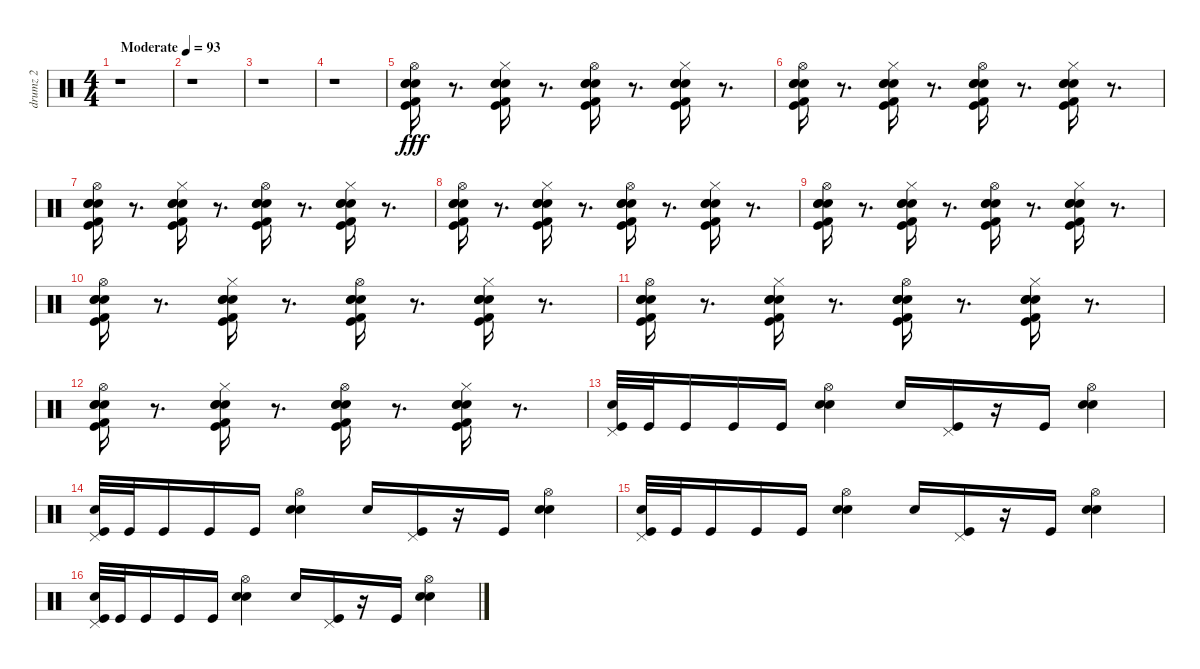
\track ("drumz 2" "drumz 2") {instrument percussion}
\staff {score}
\articulation defaults
\ts (4 4)
\tempo (93 "Moderate")
\clef neutral
\ks c
r.1{dy fff} |
r.1 |
r.1 |
r.1 |
("Kick (hit)" "Snare (hit) 2" "Hand Clap (hit)" "Electric Snare (hit)" "Kick (hit) 2" "Hi-Hat (open)").16 r.8{d} ("Kick (hit)" "Snare (hit) 2" "Hand Clap (hit)" "Electric Snare (hit)" "Kick (hit) 2" "Hi-Hat (closed)").16 r.8{d} ("Kick (hit)" "Snare (hit) 2" "Hand Clap (hit)" "Electric Snare (hit)" "Kick (hit) 2" "Hi-Hat (open)").16 r.8{d} ("Kick (hit)" "Snare (hit) 2" "Hand Clap (hit)" "Electric Snare (hit)" "Kick (hit) 2" "Hi-Hat (closed)").16 r.8{d} |
("Kick (hit)" "Snare (hit) 2" "Hand Clap (hit)" "Electric Snare (hit)" "Kick (hit) 2" "Hi-Hat (open)").16 r.8{d} ("Kick (hit)" "Snare (hit) 2" "Hand Clap (hit)" "Electric Snare (hit)" "Kick (hit) 2" "Hi-Hat (closed)").16 r.8{d} ("Kick (hit)" "Snare (hit) 2" "Hand Clap (hit)" "Electric Snare (hit)" "Kick (hit) 2" "Hi-Hat (open)").16 r.8{d} ("Kick (hit)" "Snare (hit) 2" "Hand Clap (hit)" "Electric Snare (hit)" "Kick (hit) 2" "Hi-Hat (closed)").16 r.8{d} |
("Kick (hit)" "Snare (hit) 2" "Hand Clap (hit)" "Electric Snare (hit)" "Kick (hit) 2" "Hi-Hat (open)").16 r.8{d} ("Kick (hit)" "Snare (hit) 2" "Hand Clap (hit)" "Electric Snare (hit)" "Kick (hit) 2" "Hi-Hat (closed)").16 r.8{d} ("Kick (hit)" "Snare (hit) 2" "Hand Clap (hit)" "Electric Snare (hit)" "Kick (hit) 2" "Hi-Hat (open)").16 r.8{d} ("Kick (hit)" "Snare (hit) 2" "Hand Clap (hit)" "Electric Snare (hit)" "Kick (hit) 2" "Hi-Hat (closed)").16 r.8{d} |
("Kick (hit)" "Snare (hit) 2" "Hand Clap (hit)" "Electric Snare (hit)" "Kick (hit) 2" "Hi-Hat (open)").16 r.8{d} ("Kick (hit)" "Snare (hit) 2" "Hand Clap (hit)" "Electric Snare (hit)" "Kick (hit) 2" "Hi-Hat (closed)").16 r.8{d} ("Kick (hit)" "Snare (hit) 2" "Hand Clap (hit)" "Electric Snare (hit)" "Kick (hit) 2" "Hi-Hat (open)").16 r.8{d} ("Kick (hit)" "Snare (hit) 2" "Hand Clap (hit)" "Electric Snare (hit)" "Kick (hit) 2" "Hi-Hat (closed)").16 r.8{d} |
("Kick (hit)" "Snare (hit) 2" "Hand Clap (hit)" "Electric Snare (hit)" "Kick (hit) 2" "Hi-Hat (open)").16 r.8{d} ("Kick (hit)" "Snare (hit) 2" "Hand Clap (hit)" "Electric Snare (hit)" "Kick (hit) 2" "Hi-Hat (closed)").16 r.8{d} ("Kick (hit)" "Snare (hit) 2" "Hand Clap (hit)" "Electric Snare (hit)" "Kick (hit) 2" "Hi-Hat (open)").16 r.8{d} ("Kick (hit)" "Snare (hit) 2" "Hand Clap (hit)" "Electric Snare (hit)" "Kick (hit) 2" "Hi-Hat (closed)").16 r.8{d} |
("Kick (hit)" "Snare (hit) 2" "Hand Clap (hit)" "Electric Snare (hit)" "Kick (hit) 2" "Hi-Hat (open)").16 r.8{d} ("Kick (hit)" "Snare (hit) 2" "Hand Clap (hit)" "Electric Snare (hit)" "Kick (hit) 2" "Hi-Hat (closed)").16 r.8{d} ("Kick (hit)" "Snare (hit) 2" "Hand Clap (hit)" "Electric Snare (hit)" "Kick (hit) 2" "Hi-Hat (open)").16 r.8{d} ("Kick (hit)" "Snare (hit) 2" "Hand Clap (hit)" "Electric Snare (hit)" "Kick (hit) 2" "Hi-Hat (closed)").16 r.8{d} |
("Kick (hit)" "Snare (hit) 2" "Hand Clap (hit)" "Electric Snare (hit)" "Kick (hit) 2" "Hi-Hat (open)").16 r.8{d} ("Kick (hit)" "Snare (hit) 2" "Hand Clap (hit)" "Electric Snare (hit)" "Kick (hit) 2" "Hi-Hat (closed)").16 r.8{d} ("Kick (hit)" "Snare (hit) 2" "Hand Clap (hit)" "Electric Snare (hit)" "Kick (hit) 2" "Hi-Hat (open)").16 r.8{d} ("Kick (hit)" "Snare (hit) 2" "Hand Clap (hit)" "Electric Snare (hit)" "Kick (hit) 2" "Hi-Hat (closed)").16 r.8{d} |
("Kick (hit)" "Snare (hit) 2" "Hand Clap (hit)" "Electric Snare (hit)" "Kick (hit) 2" "Hi-Hat (open)").16 r.8{d} ("Kick (hit)" "Snare (hit) 2" "Hand Clap (hit)" "Electric Snare (hit)" "Kick (hit) 2" "Hi-Hat (closed)").16 r.8{d} ("Kick (hit)" "Snare (hit) 2" "Hand Clap (hit)" "Electric Snare (hit)" "Kick (hit) 2" "Hi-Hat (open)").16 r.8{d} ("Kick (hit)" "Snare (hit) 2" "Hand Clap (hit)" "Electric Snare (hit)" "Kick (hit) 2" "Hi-Hat (closed)").16 r.8{d} |
("Kick (hit)" "Pedal Hi-Hat (hit)" "Hand Clap (hit)").32 "Kick (hit)".32 "Kick (hit)".16 "Kick (hit)".16 "Kick (hit)".16 ("Snare (hit) 2" "Hi-Hat (open)" "Hand Clap (hit)").4 "Hand Clap (hit)".16 ("Kick (hit)" "Pedal Hi-Hat (hit)").16 r.16 "Kick (hit)".16 ("Snare (hit) 2" "Hi-Hat (open)" "Hand Clap (hit)").4 |
("Kick (hit)" "Pedal Hi-Hat (hit)" "Hand Clap (hit)").32 "Kick (hit)".32 "Kick (hit)".16 "Kick (hit)".16 "Kick (hit)".16 ("Snare (hit) 2" "Hi-Hat (open)" "Hand Clap (hit)").4 "Hand Clap (hit)".16 ("Kick (hit)" "Pedal Hi-Hat (hit)").16 r.16 "Kick (hit)".16 ("Snare (hit) 2" "Hi-Hat (open)" "Hand Clap (hit)").4 |
("Kick (hit)" "Pedal Hi-Hat (hit)" "Hand Clap (hit)").32 "Kick (hit)".32 "Kick (hit)".16 "Kick (hit)".16 "Kick (hit)".16 ("Snare (hit) 2" "Hi-Hat (open)" "Hand Clap (hit)").4 "Hand Clap (hit)".16 ("Kick (hit)" "Pedal Hi-Hat (hit)").16 r.16 "Kick (hit)".16 ("Snare (hit) 2" "Hi-Hat (open)" "Hand Clap (hit)").4 |
("Kick (hit)" "Pedal Hi-Hat (hit)" "Hand Clap (hit)").32 "Kick (hit)".32 "Kick (hit)".16 "Kick (hit)".16 "Kick (hit)".16 ("Snare (hit) 2" "Hi-Hat (open)" "Hand Clap (hit)").4 "Hand Clap (hit)".16 ("Kick (hit)" "Pedal Hi-Hat (hit)").16 r.16 "Kick (hit)".16 ("Snare (hit) 2" "Hi-Hat (open)" "Hand Clap (hit)").4
